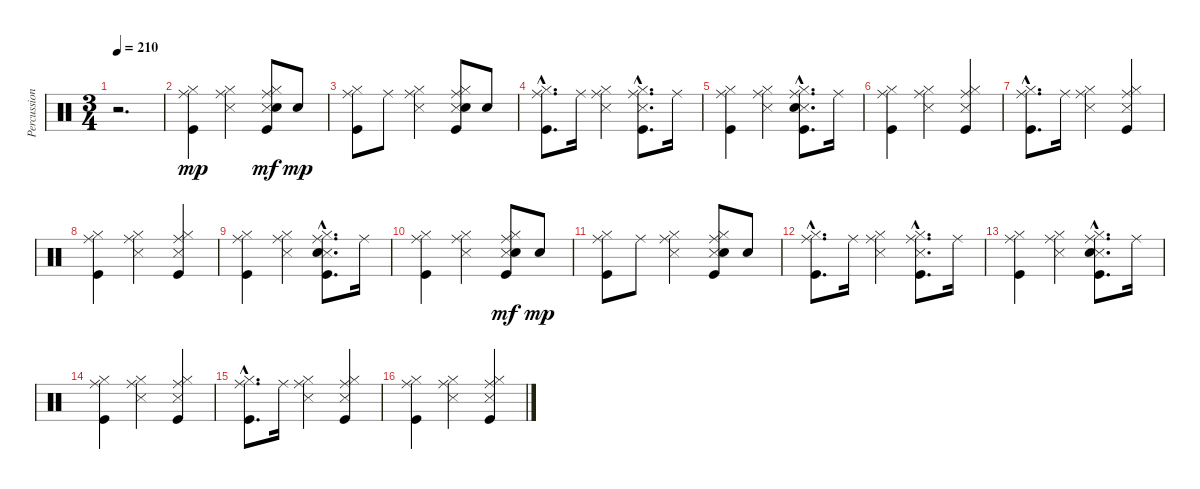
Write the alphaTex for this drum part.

\track ("Percussion" "Percussion") {instrument percussion}
\staff {score}
\articulation defaults
\ts (3 4)
\tempo 210
\clef neutral
\ks c
r.2{d dy mp} |
("Kick (hit)" "Hi-Hat (closed)" "Ride (middle)").4 ("Snare (side stick) 3" "Hi-Hat (closed)" "Ride (middle)").4 ("Kick (hit)" "Snare (side stick) 3" "Snare (hit) 2" "Hi-Hat (closed)" "Ride (middle)").8{dy mf} "Snare (hit) 2".8{dy mp} |
("Kick (hit)" "Hi-Hat (closed)" "Ride (middle)").8 "Ride (middle)".8 ("Snare (side stick) 3" "Hi-Hat (closed)" "Ride (middle)").4 ("Kick (hit)" "Snare (side stick) 3" "Snare (hit) 2" "Hi-Hat (closed)" "Ride (middle)").8 "Snare (hit) 2".8 |
("Kick (hit)"{hac} "Hi-Hat (closed)"{hac} "Ride (middle)"{hac}).8{d} "Ride (middle)".16 ("Snare (side stick) 3" "Hi-Hat (closed)" "Ride (middle)").4 ("Kick (hit)"{hac} "Snare (side stick) 3"{hac} "Hi-Hat (closed)"{hac} "Ride (middle)"{hac}).8{d} "Ride (middle)".16 |
("Kick (hit)" "Hi-Hat (closed)" "Ride (middle)").4 ("Snare (side stick) 3" "Hi-Hat (closed)" "Ride (middle)").4 ("Kick (hit)"{hac} "Snare (side stick) 3"{hac} "Snare (hit) 2"{hac} "Hi-Hat (closed)"{hac} "Ride (middle)"{hac}).8{d} "Ride (middle)".16 |
("Kick (hit)" "Hi-Hat (closed)" "Ride (middle)").4 ("Snare (side stick) 3" "Hi-Hat (closed)" "Ride (middle)").4 ("Kick (hit)" "Snare (side stick) 3" "Hi-Hat (closed)" "Ride (middle)").4 |
("Kick (hit)"{hac} "Hi-Hat (closed)"{hac} "Ride (middle)"{hac}).8{d} "Ride (middle)".16 ("Snare (side stick) 3" "Hi-Hat (closed)" "Ride (middle)").4 ("Kick (hit)" "Snare (side stick) 3" "Hi-Hat (closed)" "Ride (middle)").4 |
("Kick (hit)" "Hi-Hat (closed)" "Ride (middle)").4 ("Snare (side stick) 3" "Hi-Hat (closed)" "Ride (middle)").4 ("Kick (hit)" "Snare (side stick) 3" "Hi-Hat (closed)" "Ride (middle)").4 |
("Kick (hit)" "Hi-Hat (closed)" "Ride (middle)").4 ("Snare (side stick) 3" "Hi-Hat (closed)" "Ride (middle)").4 ("Kick (hit)"{hac} "Snare (side stick) 3"{hac} "Snare (hit) 2"{hac} "Hi-Hat (closed)"{hac} "Ride (middle)"{hac}).8{d} "Ride (middle)".16 |
("Kick (hit)" "Hi-Hat (closed)" "Ride (middle)").4 ("Snare (side stick) 3" "Hi-Hat (closed)" "Ride (middle)").4 ("Kick (hit)" "Snare (side stick) 3" "Snare (hit) 2" "Hi-Hat (closed)" "Ride (middle)").8{dy mf} "Snare (hit) 2".8{dy mp} |
("Kick (hit)" "Hi-Hat (closed)" "Ride (middle)").8 "Ride (middle)".8 ("Snare (side stick) 3" "Hi-Hat (closed)" "Ride (middle)").4 ("Kick (hit)" "Snare (side stick) 3" "Snare (hit) 2" "Hi-Hat (closed)" "Ride (middle)").8 "Snare (hit) 2".8 |
("Kick (hit)"{hac} "Hi-Hat (closed)"{hac} "Ride (middle)"{hac}).8{d} "Ride (middle)".16 ("Snare (side stick) 3" "Hi-Hat (closed)" "Ride (middle)").4 ("Kick (hit)"{hac} "Snare (side stick) 3"{hac} "Hi-Hat (closed)"{hac} "Ride (middle)"{hac}).8{d} "Ride (middle)".16 |
("Kick (hit)" "Hi-Hat (closed)" "Ride (middle)").4 ("Snare (side stick) 3" "Hi-Hat (closed)" "Ride (middle)").4 ("Kick (hit)"{hac} "Snare (side stick) 3"{hac} "Snare (hit) 2"{hac} "Hi-Hat (closed)"{hac} "Ride (middle)"{hac}).8{d} "Ride (middle)".16 |
("Kick (hit)" "Hi-Hat (closed)" "Ride (middle)").4 ("Snare (side stick) 3" "Hi-Hat (closed)" "Ride (middle)").4 ("Kick (hit)" "Snare (side stick) 3" "Hi-Hat (closed)" "Ride (middle)").4 |
("Kick (hit)"{hac} "Hi-Hat (closed)"{hac} "Ride (middle)"{hac}).8{d} "Ride (middle)".16 ("Snare (side stick) 3" "Hi-Hat (closed)" "Ride (middle)").4 ("Kick (hit)" "Snare (side stick) 3" "Hi-Hat (closed)" "Ride (middle)").4 |
("Kick (hit)" "Hi-Hat (closed)" "Ride (middle)").4 ("Snare (side stick) 3" "Hi-Hat (closed)" "Ride (middle)").4 ("Kick (hit)" "Snare (side stick) 3" "Hi-Hat (closed)" "Ride (middle)").4
